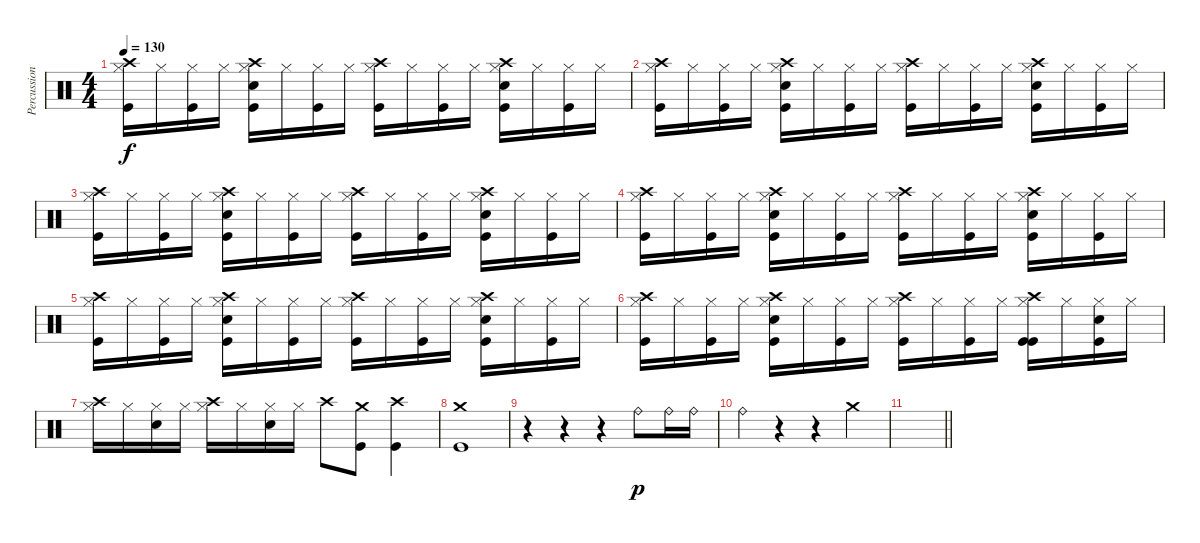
\track ("Percussion" "Percussion") {instrument percussion}
\staff {score}
\articulation defaults
\ts (4 4)
\tempo 130
\clef neutral
\ks c
("Crash high (hit)" "Hi-Hat (closed)" "Kick (hit)").16{dy f} "Hi-Hat (closed)".16 ("Hi-Hat (closed)" "Kick (hit)").16 "Hi-Hat (closed)".16 ("Crash high (hit)" "Hi-Hat (closed)" "Electric Snare (hit)" "Kick (hit)").16 "Hi-Hat (closed)".16 ("Hi-Hat (closed)" "Kick (hit)").16 "Hi-Hat (closed)".16 ("Crash high (hit)" "Hi-Hat (closed)" "Kick (hit)").16 "Hi-Hat (closed)".16 ("Hi-Hat (closed)" "Kick (hit)").16 "Hi-Hat (closed)".16 ("Crash high (hit)" "Hi-Hat (closed)" "Electric Snare (hit)" "Kick (hit)").16 "Hi-Hat (closed)".16 ("Hi-Hat (closed)" "Kick (hit)").16 "Hi-Hat (closed)".16 |
("Crash high (hit)" "Hi-Hat (closed)" "Kick (hit)").16 "Hi-Hat (closed)".16 ("Hi-Hat (closed)" "Kick (hit)").16 "Hi-Hat (closed)".16 ("Crash high (hit)" "Hi-Hat (closed)" "Electric Snare (hit)" "Kick (hit)").16 "Hi-Hat (closed)".16 ("Hi-Hat (closed)" "Kick (hit)").16 "Hi-Hat (closed)".16 ("Crash high (hit)" "Hi-Hat (closed)" "Kick (hit)").16 "Hi-Hat (closed)".16 ("Hi-Hat (closed)" "Kick (hit)").16 "Hi-Hat (closed)".16 ("Crash high (hit)" "Hi-Hat (closed)" "Electric Snare (hit)" "Kick (hit)").16 "Hi-Hat (closed)".16 ("Hi-Hat (closed)" "Kick (hit)").16 "Hi-Hat (closed)".16 |
("Crash high (hit)" "Hi-Hat (closed)" "Kick (hit)").16 "Hi-Hat (closed)".16 ("Hi-Hat (closed)" "Kick (hit)").16 "Hi-Hat (closed)".16 ("Crash high (hit)" "Hi-Hat (closed)" "Electric Snare (hit)" "Kick (hit)").16 "Hi-Hat (closed)".16 ("Hi-Hat (closed)" "Kick (hit)").16 "Hi-Hat (closed)".16 ("Crash high (hit)" "Hi-Hat (closed)" "Kick (hit)").16 "Hi-Hat (closed)".16 ("Hi-Hat (closed)" "Kick (hit)").16 "Hi-Hat (closed)".16 ("Crash high (hit)" "Hi-Hat (closed)" "Electric Snare (hit)" "Kick (hit)").16 "Hi-Hat (closed)".16 ("Hi-Hat (closed)" "Kick (hit)").16 "Hi-Hat (closed)".16 |
("Crash high (hit)" "Hi-Hat (closed)" "Kick (hit)").16 "Hi-Hat (closed)".16 ("Hi-Hat (closed)" "Kick (hit)").16 "Hi-Hat (closed)".16 ("Crash high (hit)" "Hi-Hat (closed)" "Electric Snare (hit)" "Kick (hit)").16 "Hi-Hat (closed)".16 ("Hi-Hat (closed)" "Kick (hit)").16 "Hi-Hat (closed)".16 ("Crash high (hit)" "Hi-Hat (closed)" "Kick (hit)").16 "Hi-Hat (closed)".16 ("Hi-Hat (closed)" "Kick (hit)").16 "Hi-Hat (closed)".16 ("Crash high (hit)" "Hi-Hat (closed)" "Electric Snare (hit)" "Kick (hit)").16 "Hi-Hat (closed)".16 ("Hi-Hat (closed)" "Kick (hit)").16 "Hi-Hat (closed)".16 |
("Crash high (hit)" "Hi-Hat (closed)" "Kick (hit)").16 "Hi-Hat (closed)".16 ("Hi-Hat (closed)" "Kick (hit)").16 "Hi-Hat (closed)".16 ("Crash high (hit)" "Hi-Hat (closed)" "Electric Snare (hit)" "Kick (hit)").16 "Hi-Hat (closed)".16 ("Hi-Hat (closed)" "Kick (hit)").16 "Hi-Hat (closed)".16 ("Crash high (hit)" "Hi-Hat (closed)" "Kick (hit)").16 "Hi-Hat (closed)".16 ("Hi-Hat (closed)" "Kick (hit)").16 "Hi-Hat (closed)".16 ("Crash high (hit)" "Hi-Hat (closed)" "Electric Snare (hit)" "Kick (hit)").16 "Hi-Hat (closed)".16 ("Hi-Hat (closed)" "Kick (hit)").16 "Hi-Hat (closed)".16 |
("Crash high (hit)" "Hi-Hat (closed)" "Kick (hit)").16 "Hi-Hat (closed)".16 ("Hi-Hat (closed)" "Kick (hit)").16 "Hi-Hat (closed)".16 ("Crash high (hit)" "Hi-Hat (closed)" "Electric Snare (hit)" "Kick (hit)").16 "Hi-Hat (closed)".16 ("Hi-Hat (closed)" "Kick (hit)").16 "Hi-Hat (closed)".16 ("Crash high (hit)" "Hi-Hat (closed)" "Kick (hit)").16 "Hi-Hat (closed)".16 ("Hi-Hat (closed)" "Kick (hit)").16 "Hi-Hat (closed)".16 ("Crash high (hit)" "Hi-Hat (closed)" "Kick (hit)" "Kick (hit)").16 "Hi-Hat (closed)".16 ("Hi-Hat (closed)" "Electric Snare (hit)" "Kick (hit)").16 "Hi-Hat (closed)".16 |
("Crash high (hit)" "Hi-Hat (closed)").16 "Hi-Hat (closed)".16 ("Hi-Hat (closed)" "Electric Snare (hit)").16 "Hi-Hat (closed)".16 ("Crash high (hit)" "Hi-Hat (closed)").16 "Hi-Hat (closed)".16 ("Hi-Hat (closed)" "Electric Snare (hit)").16 "Hi-Hat (closed)".16 "Crash high (hit)".8 ("Crash medium (hit)" "Kick (hit)").8 ("Crash high (hit)" "Kick (hit)").4 |
("Crash medium (hit)" "Kick (hit)").1 |
r.4 r.4 r.4 "Ride (bell)".8{dy p} "Ride (bell)".16 "Ride (bell)".16 |
"Ride (bell)".4 r.4 r.4 "Crash medium (hit)".4 |
\barLineRight lightlight
